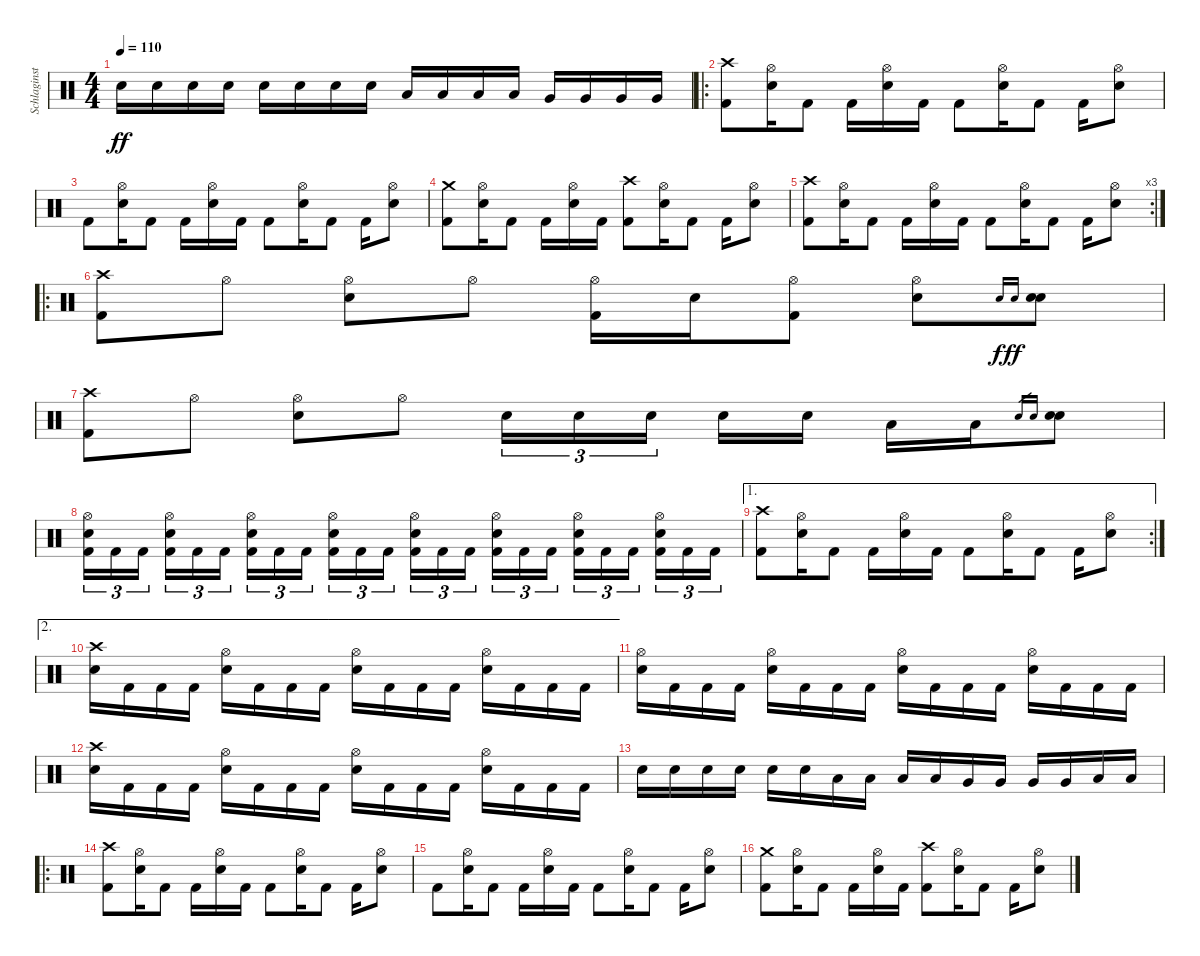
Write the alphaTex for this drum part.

\track ("Schlaginstrumente - Auswahl" "Schlaginst") {instrument percussion}
\staff {score}
\articulation defaults
\ts (4 4)
\tempo 110
\clef neutral
\ks c "Electric Snare (hit)".16{dy ff} "Electric Snare (hit)".16 "Electric Snare (hit)".16 "Electric Snare (hit)".16 "Electric Snare (hit)".16 "Electric Snare (hit)".16 "Electric Snare (hit)".16 "Electric Snare (hit)".16 "Low Tom (hit)".16 "Low Tom (hit)".16 "Low Tom (hit)".16 "Low Tom (hit)".16 "Very Low Tom (hit)".16 "Very Low Tom (hit)".16 "Very Low Tom (hit)".16 "Very Low Tom (hit)".16
|
\ro
("Crash high (hit)" "Kick (hit) 2").8 ("Hi-Hat (open)" "Electric Snare (hit)").16 "Kick (hit) 2".8 "Kick (hit) 2".16 ("Hi-Hat (open)" "Electric Snare (hit)").16 "Kick (hit) 2".16 "Kick (hit) 2".8 ("Hi-Hat (open)" "Electric Snare (hit)").16 "Kick (hit) 2".8 "Kick (hit) 2".16 ("Hi-Hat (open)" "Electric Snare (hit)").8 |
"Kick (hit) 2".8 ("Hi-Hat (open)" "Electric Snare (hit)").16 "Kick (hit) 2".8 "Kick (hit) 2".16 ("Hi-Hat (open)" "Electric Snare (hit)").16 "Kick (hit) 2".16 "Kick (hit) 2".8 ("Hi-Hat (open)" "Electric Snare (hit)").16 "Kick (hit) 2".8 "Kick (hit) 2".16 ("Hi-Hat (open)" "Electric Snare (hit)").8 |
("Crash medium (hit)" "Kick (hit) 2").8 ("Hi-Hat (open)" "Electric Snare (hit)").16 "Kick (hit) 2".8 "Kick (hit) 2".16 ("Hi-Hat (open)" "Electric Snare (hit)").16 "Kick (hit) 2".16 ("Crash high (hit)" "Kick (hit) 2").8 ("Hi-Hat (open)" "Electric Snare (hit)").16 "Kick (hit) 2".8 "Kick (hit) 2".16 ("Hi-Hat (open)" "Electric Snare (hit)").8 |
\rc 3
("Crash high (hit)" "Kick (hit) 2").8 ("Hi-Hat (open)" "Electric Snare (hit)").16 "Kick (hit) 2".8 "Kick (hit) 2".16 ("Hi-Hat (open)" "Electric Snare (hit)").16 "Kick (hit) 2".16 "Kick (hit) 2".8 ("Hi-Hat (open)" "Electric Snare (hit)").16 "Kick (hit) 2".8 "Kick (hit) 2".16 ("Hi-Hat (open)" "Electric Snare (hit)").8 |
\ro
("Crash high (hit)" "Kick (hit) 2").8 "Hi-Hat (open)".8 ("Hi-Hat (open)" "Electric Snare (hit)").8 "Hi-Hat (open)".8 ("Hi-Hat (open)" "Kick (hit) 2").16 "Electric Snare (hit)".16 ("Hi-Hat (open)" "Kick (hit) 2").8 ("Hi-Hat (open)" "Electric Snare (hit)").8 "Electric Snare (hit)".16{gr onbeat dy f} "Electric Snare (hit)".16{gr onbeat dy ff} ("Electric Snare (hit)" "Electric Snare (hit)").8 |
("Crash high (hit)" "Kick (hit) 2").8 "Hi-Hat (open)".8 ("Hi-Hat (open)" "Electric Snare (hit)").8 "Hi-Hat (open)".8 "Electric Snare (hit)".16{tu (3 2)} "Electric Snare (hit)".16{tu (3 2)} "Electric Snare (hit)".16{tu (3 2) beam splitsecondary} "Electric Snare (hit)".16 "Electric Snare (hit)".16 "Low Tom (hit)".16 "Low Tom (hit)".16 "Electric Snare (hit)".16{gr} "Electric Snare (hit)".16{gr} ("Electric Snare (hit)" "Electric Snare (hit)").8 |
("Hi-Hat (open)" "Electric Snare (hit)" "Kick (hit) 2").16{tu (3 2)} "Kick (hit) 2".16{tu (3 2)} "Kick (hit) 2".16{tu (3 2) beam splitsecondary} ("Hi-Hat (open)" "Electric Snare (hit)" "Kick (hit) 2").16{tu (3 2)} "Kick (hit) 2".16{tu (3 2)} "Kick (hit) 2".16{tu (3 2)} ("Hi-Hat (open)" "Electric Snare (hit)" "Kick (hit) 2").16{tu (3 2)} "Kick (hit) 2".16{tu (3 2)} "Kick (hit) 2".16{tu (3 2) beam splitsecondary} ("Hi-Hat (open)" "Electric Snare (hit)" "Kick (hit) 2").16{tu (3 2)} "Kick (hit) 2".16{tu (3 2)} "Kick (hit) 2".16{tu (3 2)} ("Hi-Hat (open)" "Electric Snare (hit)" "Kick (hit) 2").16{tu (3 2)} "Kick (hit) 2".16{tu (3 2)} "Kick (hit) 2".16{tu (3 2) beam splitsecondary} ("Hi-Hat (open)" "Electric Snare (hit)" "Kick (hit) 2").16{tu (3 2)} "Kick (hit) 2".16{tu (3 2)} "Kick (hit) 2".16{tu (3 2)} ("Hi-Hat (open)" "Electric Snare (hit)" "Kick (hit) 2").16{tu (3 2)} "Kick (hit) 2".16{tu (3 2)} "Kick (hit) 2".16{tu (3 2) beam splitsecondary} ("Hi-Hat (open)" "Electric Snare (hit)" "Kick (hit) 2").16{tu (3 2)} "Kick (hit) 2".16{tu (3 2)} "Kick (hit) 2".16{tu (3 2)} |
\ae 1
\rc 2
("Crash high (hit)" "Kick (hit) 2").8 ("Hi-Hat (open)" "Electric Snare (hit)").16 "Kick (hit) 2".8 "Kick (hit) 2".16 ("Hi-Hat (open)" "Electric Snare (hit)").16 "Kick (hit) 2".16 "Kick (hit) 2".8 ("Hi-Hat (open)" "Electric Snare (hit)").16 "Kick (hit) 2".8 "Kick (hit) 2".16 ("Hi-Hat (open)" "Electric Snare (hit)").8 |
\ae 2
("Crash high (hit)" "Electric Snare (hit)").16 "Kick (hit) 2".16 "Kick (hit) 2".16 "Kick (hit) 2".16 ("Hi-Hat (open)" "Electric Snare (hit)").16 "Kick (hit) 2".16 "Kick (hit) 2".16 "Kick (hit) 2".16 ("Hi-Hat (open)" "Electric Snare (hit)").16 "Kick (hit) 2".16 "Kick (hit) 2".16 "Kick (hit) 2".16 ("Hi-Hat (open)" "Electric Snare (hit)").16 "Kick (hit) 2".16 "Kick (hit) 2".16 "Kick (hit) 2".16 |
("Hi-Hat (open)" "Electric Snare (hit)").16 "Kick (hit) 2".16 "Kick (hit) 2".16 "Kick (hit) 2".16 ("Hi-Hat (open)" "Electric Snare (hit)").16 "Kick (hit) 2".16 "Kick (hit) 2".16 "Kick (hit) 2".16 ("Hi-Hat (open)" "Electric Snare (hit)").16 "Kick (hit) 2".16 "Kick (hit) 2".16 "Kick (hit) 2".16 ("Hi-Hat (open)" "Electric Snare (hit)").16 "Kick (hit) 2".16 "Kick (hit) 2".16 "Kick (hit) 2".16 |
("Crash high (hit)" "Electric Snare (hit)").16 "Kick (hit) 2".16 "Kick (hit) 2".16 "Kick (hit) 2".16 ("Hi-Hat (open)" "Electric Snare (hit)").16 "Kick (hit) 2".16 "Kick (hit) 2".16 "Kick (hit) 2".16 ("Hi-Hat (open)" "Electric Snare (hit)").16 "Kick (hit) 2".16 "Kick (hit) 2".16 "Kick (hit) 2".16 ("Hi-Hat (open)" "Electric Snare (hit)").16 "Kick (hit) 2".16 "Kick (hit) 2".16 "Kick (hit) 2".16 |
"Electric Snare (hit)".16 "Electric Snare (hit)".16 "Electric Snare (hit)".16 "Electric Snare (hit)".16 "Electric Snare (hit)".16 "Electric Snare (hit)".16 "Low Tom (hit)".16 "Low Tom (hit)".16 "Low Tom (hit)".16 "Low Tom (hit)".16 "Very Low Tom (hit)".16 "Very Low Tom (hit)".16 "Very Low Tom (hit)".16 "Very Low Tom (hit)".16 "Low Floor Tom (hit)".16 "Low Floor Tom (hit)".16 |
\ro
("Crash high (hit)" "Kick (hit) 2").8 ("Hi-Hat (open)" "Electric Snare (hit)").16 "Kick (hit) 2".8 "Kick (hit) 2".16 ("Hi-Hat (open)" "Electric Snare (hit)").16 "Kick (hit) 2".16 "Kick (hit) 2".8 ("Hi-Hat (open)" "Electric Snare (hit)").16 "Kick (hit) 2".8 "Kick (hit) 2".16 ("Hi-Hat (open)" "Electric Snare (hit)").8 |
"Kick (hit) 2".8 ("Hi-Hat (open)" "Electric Snare (hit)").16 "Kick (hit) 2".8 "Kick (hit) 2".16 ("Hi-Hat (open)" "Electric Snare (hit)").16 "Kick (hit) 2".16 "Kick (hit) 2".8 ("Hi-Hat (open)" "Electric Snare (hit)").16 "Kick (hit) 2".8 "Kick (hit) 2".16 ("Hi-Hat (open)" "Electric Snare (hit)").8 |
("Crash medium (hit)" "Kick (hit) 2").8 ("Hi-Hat (open)" "Electric Snare (hit)").16 "Kick (hit) 2".8 "Kick (hit) 2".16 ("Hi-Hat (open)" "Electric Snare (hit)").16 "Kick (hit) 2".16 ("Crash high (hit)" "Kick (hit) 2").8 ("Hi-Hat (open)" "Electric Snare (hit)").16 "Kick (hit) 2".8 "Kick (hit) 2".16 ("Hi-Hat (open)" "Electric Snare (hit)").8
